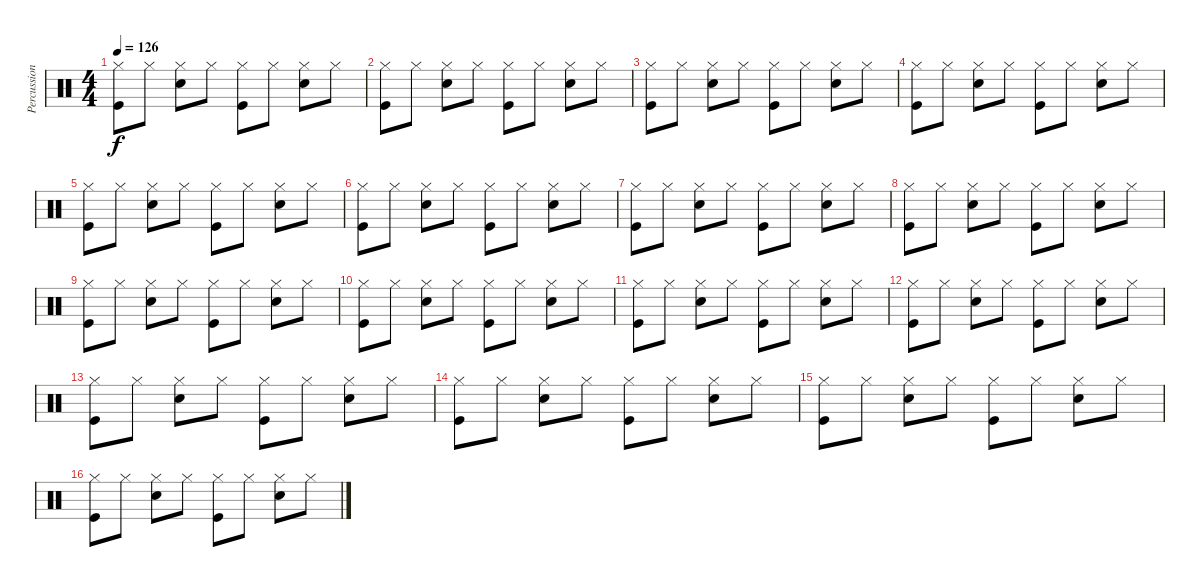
\track ("Percussions" "Percussion") {instrument percussion}
\staff {score}
\articulation defaults
\ts (4 4)
\tempo 126
\clef neutral
\ks c
("Hi-Hat (closed)" "Kick (hit)").8{dy f} "Hi-Hat (closed)".8 ("Hi-Hat (closed)" "Snare (hit) 2").8 "Hi-Hat (closed)".8 ("Hi-Hat (closed)" "Kick (hit)").8 "Hi-Hat (closed)".8 ("Hi-Hat (closed)" "Snare (hit) 2").8 "Hi-Hat (closed)".8 |
("Hi-Hat (closed)" "Kick (hit)").8 "Hi-Hat (closed)".8 ("Hi-Hat (closed)" "Snare (hit) 2").8 "Hi-Hat (closed)".8 ("Hi-Hat (closed)" "Kick (hit)").8 "Hi-Hat (closed)".8 ("Hi-Hat (closed)" "Snare (hit) 2").8 "Hi-Hat (closed)".8 |
("Hi-Hat (closed)" "Kick (hit)").8 "Hi-Hat (closed)".8 ("Hi-Hat (closed)" "Snare (hit) 2").8 "Hi-Hat (closed)".8 ("Hi-Hat (closed)" "Kick (hit)").8 "Hi-Hat (closed)".8 ("Hi-Hat (closed)" "Snare (hit) 2").8 "Hi-Hat (closed)".8 |
("Hi-Hat (closed)" "Kick (hit)").8 "Hi-Hat (closed)".8 ("Hi-Hat (closed)" "Snare (hit) 2").8 "Hi-Hat (closed)".8 ("Hi-Hat (closed)" "Kick (hit)").8 "Hi-Hat (closed)".8 ("Hi-Hat (closed)" "Snare (hit) 2").8 "Hi-Hat (closed)".8 |
("Hi-Hat (closed)" "Kick (hit)").8 "Hi-Hat (closed)".8 ("Hi-Hat (closed)" "Snare (hit) 2").8 "Hi-Hat (closed)".8 ("Hi-Hat (closed)" "Kick (hit)").8 "Hi-Hat (closed)".8 ("Hi-Hat (closed)" "Snare (hit) 2").8 "Hi-Hat (closed)".8 |
("Hi-Hat (closed)" "Kick (hit)").8 "Hi-Hat (closed)".8 ("Hi-Hat (closed)" "Snare (hit) 2").8 "Hi-Hat (closed)".8 ("Hi-Hat (closed)" "Kick (hit)").8 "Hi-Hat (closed)".8 ("Hi-Hat (closed)" "Snare (hit) 2").8 "Hi-Hat (closed)".8 |
("Hi-Hat (closed)" "Kick (hit)").8 "Hi-Hat (closed)".8 ("Hi-Hat (closed)" "Snare (hit) 2").8 "Hi-Hat (closed)".8 ("Hi-Hat (closed)" "Kick (hit)").8 "Hi-Hat (closed)".8 ("Hi-Hat (closed)" "Snare (hit) 2").8 "Hi-Hat (closed)".8 |
("Hi-Hat (closed)" "Kick (hit)").8 "Hi-Hat (closed)".8 ("Hi-Hat (closed)" "Snare (hit) 2").8 "Hi-Hat (closed)".8 ("Hi-Hat (closed)" "Kick (hit)").8 "Hi-Hat (closed)".8 ("Hi-Hat (closed)" "Snare (hit) 2").8 "Hi-Hat (closed)".8 |
("Hi-Hat (closed)" "Kick (hit)").8 "Hi-Hat (closed)".8 ("Hi-Hat (closed)" "Snare (hit) 2").8 "Hi-Hat (closed)".8 ("Hi-Hat (closed)" "Kick (hit)").8 "Hi-Hat (closed)".8 ("Hi-Hat (closed)" "Snare (hit) 2").8 "Hi-Hat (closed)".8 |
("Hi-Hat (closed)" "Kick (hit)").8 "Hi-Hat (closed)".8 ("Hi-Hat (closed)" "Snare (hit) 2").8 "Hi-Hat (closed)".8 ("Hi-Hat (closed)" "Kick (hit)").8 "Hi-Hat (closed)".8 ("Hi-Hat (closed)" "Snare (hit) 2").8 "Hi-Hat (closed)".8 |
("Hi-Hat (closed)" "Kick (hit)").8 "Hi-Hat (closed)".8 ("Hi-Hat (closed)" "Snare (hit) 2").8 "Hi-Hat (closed)".8 ("Hi-Hat (closed)" "Kick (hit)").8 "Hi-Hat (closed)".8 ("Hi-Hat (closed)" "Snare (hit) 2").8 "Hi-Hat (closed)".8 |
("Hi-Hat (closed)" "Kick (hit)").8 "Hi-Hat (closed)".8 ("Hi-Hat (closed)" "Snare (hit) 2").8 "Hi-Hat (closed)".8 ("Hi-Hat (closed)" "Kick (hit)").8 "Hi-Hat (closed)".8 ("Hi-Hat (closed)" "Snare (hit) 2").8 "Hi-Hat (closed)".8 |
("Hi-Hat (closed)" "Kick (hit)").8 "Hi-Hat (closed)".8 ("Hi-Hat (closed)" "Snare (hit) 2").8 "Hi-Hat (closed)".8 ("Hi-Hat (closed)" "Kick (hit)").8 "Hi-Hat (closed)".8 ("Hi-Hat (closed)" "Snare (hit) 2").8 "Hi-Hat (closed)".8 |
("Hi-Hat (closed)" "Kick (hit)").8 "Hi-Hat (closed)".8 ("Hi-Hat (closed)" "Snare (hit) 2").8 "Hi-Hat (closed)".8 ("Hi-Hat (closed)" "Kick (hit)").8 "Hi-Hat (closed)".8 ("Hi-Hat (closed)" "Snare (hit) 2").8 "Hi-Hat (closed)".8 |
("Hi-Hat (closed)" "Kick (hit)").8 "Hi-Hat (closed)".8 ("Hi-Hat (closed)" "Snare (hit) 2").8 "Hi-Hat (closed)".8 ("Hi-Hat (closed)" "Kick (hit)").8 "Hi-Hat (closed)".8 ("Hi-Hat (closed)" "Snare (hit) 2").8 "Hi-Hat (closed)".8 |
("Hi-Hat (closed)" "Kick (hit)").8 "Hi-Hat (closed)".8 ("Hi-Hat (closed)" "Snare (hit) 2").8 "Hi-Hat (closed)".8 ("Hi-Hat (closed)" "Kick (hit)").8 "Hi-Hat (closed)".8 ("Hi-Hat (closed)" "Snare (hit) 2").8 "Hi-Hat (closed)".8
